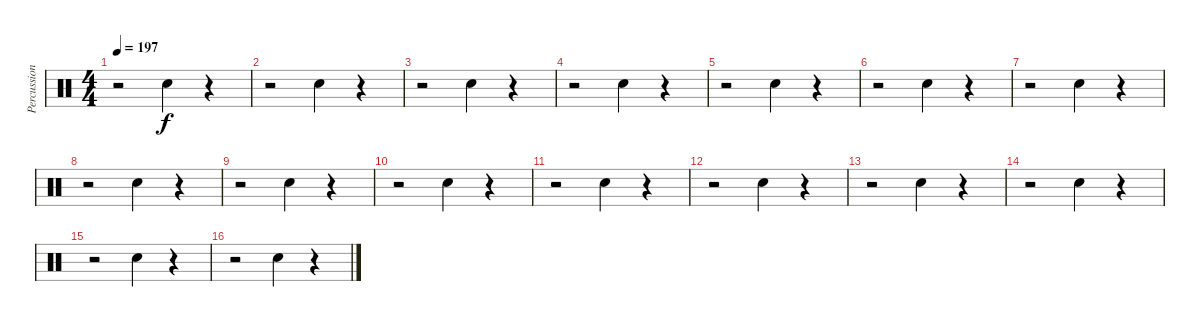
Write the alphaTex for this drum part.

\track ("Percussion" "Percussion") {instrument percussion}
\staff {score}
\articulation defaults
\ts (4 4)
\tempo 197
\clef neutral
\ks c
r.2{dy f} "Electric Snare (hit)".4 r.4 |
r.2 "Electric Snare (hit)".4 r.4 |
r.2 "Electric Snare (hit)".4 r.4 |
r.2 "Electric Snare (hit)".4 r.4 |
r.2 "Electric Snare (hit)".4 r.4 |
r.2 "Electric Snare (hit)".4 r.4 |
r.2 "Electric Snare (hit)".4 r.4 |
r.2 "Electric Snare (hit)".4 r.4 |
r.2 "Electric Snare (hit)".4 r.4 |
r.2 "Electric Snare (hit)".4 r.4 |
r.2 "Electric Snare (hit)".4 r.4 |
r.2 "Electric Snare (hit)".4 r.4 |
r.2 "Electric Snare (hit)".4 r.4 |
r.2 "Electric Snare (hit)".4 r.4 |
r.2 "Electric Snare (hit)".4 r.4 |
r.2 "Electric Snare (hit)".4 r.4
